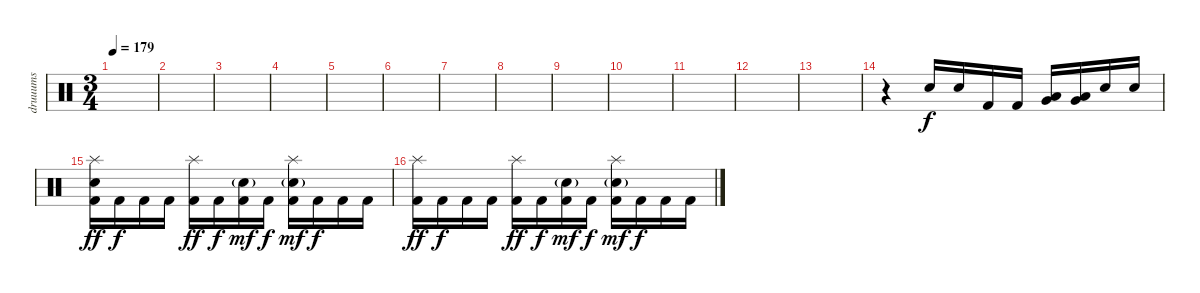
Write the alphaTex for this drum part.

\track ("druuums" "druuums") {instrument percussion}
\staff {score}
\articulation defaults
\ts (3 4)
\tempo 179
\clef neutral
\ks c
|
|
|
|
|
|
|
|
|
|
|
|
|
r.4 "Electric Snare (hit)".16 "Electric Snare (hit)".16 "Kick (hit) 2".16 "Kick (hit) 2".16 ("Low Tom (hit)" "Very Low Tom (hit)").16 ("Low Floor Tom (hit)" "Very Low Tom (hit)").16 "Electric Snare (hit)".16 "Electric Snare (hit)".16 |
("Splash (hit)" "Electric Snare (hit)" "Kick (hit) 2").16{dy ff} "Kick (hit) 2".16{dy f} "Kick (hit) 2".16 "Kick (hit) 2".16 ("Splash (hit)" "Kick (hit) 2").16{dy ff} "Kick (hit) 2".16{dy f} ("Electric Snare (hit)"{g} "Kick (hit) 2").16{dy mf} "Kick (hit) 2".16{dy f} ("Splash (hit)" "Electric Snare (hit)"{g} "Kick (hit) 2").16{dy mf} "Kick (hit) 2".16{dy f} "Kick (hit) 2".16 "Kick (hit) 2".16 |
("Splash (hit)" "Kick (hit) 2").16{dy ff} "Kick (hit) 2".16{dy f} "Kick (hit) 2".16 "Kick (hit) 2".16 ("Splash (hit)" "Kick (hit) 2").16{dy ff} "Kick (hit) 2".16{dy f} ("Electric Snare (hit)"{g} "Kick (hit) 2").16{dy mf} "Kick (hit) 2".16{dy f} ("Splash (hit)" "Electric Snare (hit)"{g} "Kick (hit) 2").16{dy mf} "Kick (hit) 2".16{dy f} "Kick (hit) 2".16 "Kick (hit) 2".16
